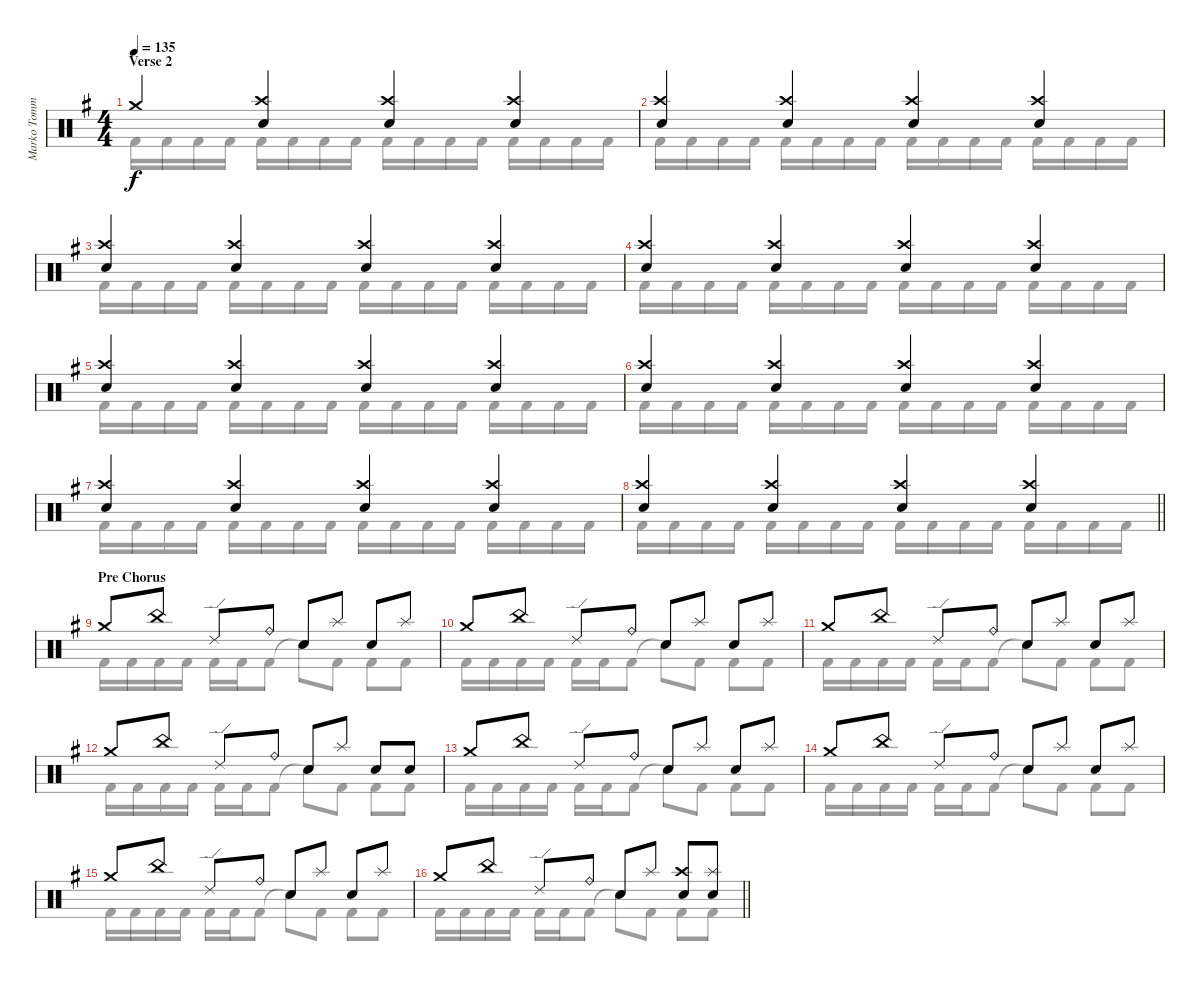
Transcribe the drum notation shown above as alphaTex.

\track ("Marko Tommila (drums)" "Marko Tomm") {instrument percussion}
\staff {score}
\articulation defaults
\voice
\ts (4 4)
\section ("" "Verse 2")
\tempo 135
\clef neutral
\ks eminor "Crash medium (hit)".4{dy f}
("Crash high (hit)" "Electric Snare (hit)").4 ("Crash high (hit)" "Electric Snare (hit)").4 ("Crash high (hit)" "Electric Snare (hit)").4 |
("Crash high (hit)" "Electric Snare (hit)").4 ("Crash high (hit)" "Electric Snare (hit)").4 ("Crash high (hit)" "Electric Snare (hit)").4 ("Crash high (hit)" "Electric Snare (hit)").4 |
("Crash high (hit)" "Electric Snare (hit)").4 ("Crash high (hit)" "Electric Snare (hit)").4 ("Crash high (hit)" "Electric Snare (hit)").4 ("Crash high (hit)" "Electric Snare (hit)").4 |
("Crash high (hit)" "Electric Snare (hit)").4 ("Crash high (hit)" "Electric Snare (hit)").4 ("Crash high (hit)" "Electric Snare (hit)").4 ("Crash high (hit)" "Electric Snare (hit)").4 |
("Crash high (hit)" "Electric Snare (hit)").4 ("Crash high (hit)" "Electric Snare (hit)").4 ("Crash high (hit)" "Electric Snare (hit)").4 ("Crash high (hit)" "Electric Snare (hit)").4 |
("Crash high (hit)" "Electric Snare (hit)").4 ("Crash high (hit)" "Electric Snare (hit)").4 ("Crash high (hit)" "Electric Snare (hit)").4 ("Crash high (hit)" "Electric Snare (hit)").4 |
("Crash high (hit)" "Electric Snare (hit)").4 ("Crash high (hit)" "Electric Snare (hit)").4 ("Crash high (hit)" "Electric Snare (hit)").4 ("Crash high (hit)" "Electric Snare (hit)").4 |
\barLineRight lightlight
("Crash high (hit)" "Electric Snare (hit)").4 ("Crash high (hit)" "Electric Snare (hit)").4 ("Crash high (hit)" "Electric Snare (hit)").4 ("Crash high (hit)" "Electric Snare (hit)").4 |
\section ("" "Pre Chorus")
"Crash medium (hit)".8 "China (hit)".8 "Ride (edge) 2".8 "Ride (bell)".8 "Electric Snare (hit)".8 "Splash (hit)".8 "Electric Snare (hit)".8 "Splash (hit)".8 |
"Crash medium (hit)".8 "China (hit)".8 "Ride (edge) 2".8 "Ride (bell)".8 "Electric Snare (hit)".8 "Splash (hit)".8 "Electric Snare (hit)".8 "Splash (hit)".8 |
"Crash medium (hit)".8 "China (hit)".8 "Ride (edge) 2".8 "Ride (bell)".8 "Electric Snare (hit)".8 "Splash (hit)".8 "Electric Snare (hit)".8 "Splash (hit)".8 |
"Crash medium (hit)".8 "China (hit)".8 "Ride (edge) 2".8 "Ride (bell)".8 "Electric Snare (hit)".8 "Splash (hit)".8 "Electric Snare (hit)".8 "Electric Snare (hit)".8 |
"Crash medium (hit)".8 "China (hit)".8 "Ride (edge) 2".8 "Ride (bell)".8 "Electric Snare (hit)".8 "Splash (hit)".8 "Electric Snare (hit)".8 "Splash (hit)".8 |
"Crash medium (hit)".8 "China (hit)".8 "Ride (edge) 2".8 "Ride (bell)".8 "Electric Snare (hit)".8 "Splash (hit)".8 "Electric Snare (hit)".8 "Splash (hit)".8 |
"Crash medium (hit)".8 "China (hit)".8 "Ride (edge) 2".8 "Ride (bell)".8 "Electric Snare (hit)".8 "Splash (hit)".8 "Electric Snare (hit)".8 "Splash (hit)".8 |
\barLineRight lightlight "Crash medium (hit)".8 "China (hit)".8 "Ride (edge) 2".8 "Ride (bell)".8 "Electric Snare (hit)".8 "Splash (hit)".8
("Crash high (hit)" "Electric Snare (hit)").8 ("Splash (hit)" "Electric Snare (hit)").8
\voice
\clef neutral
\ottava regular
\simile none
\ks eminor "Kick (hit) 2".16{dy f} "Kick (hit) 2".16 "Kick (hit) 2".16 "Kick (hit) 2".16 "Kick (hit) 2".16 "Kick (hit) 2".16 "Kick (hit) 2".16 "Kick (hit) 2".16 "Kick (hit) 2".16 "Kick (hit) 2".16 "Kick (hit) 2".16 "Kick (hit) 2".16 "Kick (hit) 2".16 "Kick (hit) 2".16 "Kick (hit) 2".16 "Kick (hit) 2".16
|
"Kick (hit) 2".16 "Kick (hit) 2".16 "Kick (hit) 2".16 "Kick (hit) 2".16 "Kick (hit) 2".16 "Kick (hit) 2".16 "Kick (hit) 2".16 "Kick (hit) 2".16 "Kick (hit) 2".16 "Kick (hit) 2".16 "Kick (hit) 2".16 "Kick (hit) 2".16 "Kick (hit) 2".16 "Kick (hit) 2".16 "Kick (hit) 2".16 "Kick (hit) 2".16 |
"Kick (hit) 2".16 "Kick (hit) 2".16 "Kick (hit) 2".16 "Kick (hit) 2".16 "Kick (hit) 2".16 "Kick (hit) 2".16 "Kick (hit) 2".16 "Kick (hit) 2".16 "Kick (hit) 2".16 "Kick (hit) 2".16 "Kick (hit) 2".16 "Kick (hit) 2".16 "Kick (hit) 2".16 "Kick (hit) 2".16 "Kick (hit) 2".16 "Kick (hit) 2".16 |
"Kick (hit) 2".16 "Kick (hit) 2".16 "Kick (hit) 2".16 "Kick (hit) 2".16 "Kick (hit) 2".16 "Kick (hit) 2".16 "Kick (hit) 2".16 "Kick (hit) 2".16 "Kick (hit) 2".16 "Kick (hit) 2".16 "Kick (hit) 2".16 "Kick (hit) 2".16 "Kick (hit) 2".16 "Kick (hit) 2".16 "Kick (hit) 2".16 "Kick (hit) 2".16 |
"Kick (hit) 2".16 "Kick (hit) 2".16 "Kick (hit) 2".16 "Kick (hit) 2".16 "Kick (hit) 2".16 "Kick (hit) 2".16 "Kick (hit) 2".16 "Kick (hit) 2".16 "Kick (hit) 2".16 "Kick (hit) 2".16 "Kick (hit) 2".16 "Kick (hit) 2".16 "Kick (hit) 2".16 "Kick (hit) 2".16 "Kick (hit) 2".16 "Kick (hit) 2".16 |
"Kick (hit) 2".16 "Kick (hit) 2".16 "Kick (hit) 2".16 "Kick (hit) 2".16 "Kick (hit) 2".16 "Kick (hit) 2".16 "Kick (hit) 2".16 "Kick (hit) 2".16 "Kick (hit) 2".16 "Kick (hit) 2".16 "Kick (hit) 2".16 "Kick (hit) 2".16 "Kick (hit) 2".16 "Kick (hit) 2".16 "Kick (hit) 2".16 "Kick (hit) 2".16 |
"Kick (hit) 2".16 "Kick (hit) 2".16 "Kick (hit) 2".16 "Kick (hit) 2".16 "Kick (hit) 2".16 "Kick (hit) 2".16 "Kick (hit) 2".16 "Kick (hit) 2".16 "Kick (hit) 2".16 "Kick (hit) 2".16 "Kick (hit) 2".16 "Kick (hit) 2".16 "Kick (hit) 2".16 "Kick (hit) 2".16 "Kick (hit) 2".16 "Kick (hit) 2".16 |
\barLineRight lightlight "Kick (hit) 2".16 "Kick (hit) 2".16 "Kick (hit) 2".16 "Kick (hit) 2".16 "Kick (hit) 2".16 "Kick (hit) 2".16 "Kick (hit) 2".16 "Kick (hit) 2".16 "Kick (hit) 2".16 "Kick (hit) 2".16 "Kick (hit) 2".16 "Kick (hit) 2".16 "Kick (hit) 2".16 "Kick (hit) 2".16 "Kick (hit) 2".16 "Kick (hit) 2".16
|
"Kick (hit) 2".16 "Kick (hit) 2".16 "Kick (hit) 2".16 "Kick (hit) 2".16 "Kick (hit) 2".16 "Kick (hit) 2".16 "Kick (hit) 2".8 "Snare (hit)"{t}.8 "Kick (hit) 2".8 "Kick (hit) 2".8 "Kick (hit) 2".8 |
"Kick (hit) 2".16 "Kick (hit) 2".16 "Kick (hit) 2".16 "Kick (hit) 2".16 "Kick (hit) 2".16 "Kick (hit) 2".16 "Kick (hit) 2".8 "Snare (hit)"{t}.8 "Kick (hit) 2".8 "Kick (hit) 2".8 "Kick (hit) 2".8 |
"Kick (hit) 2".16 "Kick (hit) 2".16 "Kick (hit) 2".16 "Kick (hit) 2".16 "Kick (hit) 2".16 "Kick (hit) 2".16 "Kick (hit) 2".8 "Snare (hit)"{t}.8 "Kick (hit) 2".8 "Kick (hit) 2".8 "Kick (hit) 2".8 |
"Kick (hit) 2".16 "Kick (hit) 2".16 "Kick (hit) 2".16 "Kick (hit) 2".16 "Kick (hit) 2".16 "Kick (hit) 2".16 "Kick (hit) 2".8 "Snare (hit)"{t}.8 "Kick (hit) 2".8 "Kick (hit) 2".8 "Kick (hit) 2".8 |
"Kick (hit) 2".16 "Kick (hit) 2".16 "Kick (hit) 2".16 "Kick (hit) 2".16 "Kick (hit) 2".16 "Kick (hit) 2".16 "Kick (hit) 2".8 "Snare (hit)"{t}.8 "Kick (hit) 2".8 "Kick (hit) 2".8 "Kick (hit) 2".8 |
"Kick (hit) 2".16 "Kick (hit) 2".16 "Kick (hit) 2".16 "Kick (hit) 2".16 "Kick (hit) 2".16 "Kick (hit) 2".16 "Kick (hit) 2".8 "Snare (hit)"{t}.8 "Kick (hit) 2".8 "Kick (hit) 2".8 "Kick (hit) 2".8 |
"Kick (hit) 2".16 "Kick (hit) 2".16 "Kick (hit) 2".16 "Kick (hit) 2".16 "Kick (hit) 2".16 "Kick (hit) 2".16 "Kick (hit) 2".8 "Snare (hit)"{t}.8 "Kick (hit) 2".8 "Kick (hit) 2".8 "Kick (hit) 2".8 |
\barLineRight lightlight "Kick (hit) 2".16 "Kick (hit) 2".16 "Kick (hit) 2".16 "Kick (hit) 2".16 "Kick (hit) 2".16 "Kick (hit) 2".16 "Kick (hit) 2".8 "Snare (hit)"{t}.8 "Kick (hit) 2".8 "Kick (hit) 2".8 "Kick (hit) 2".8
